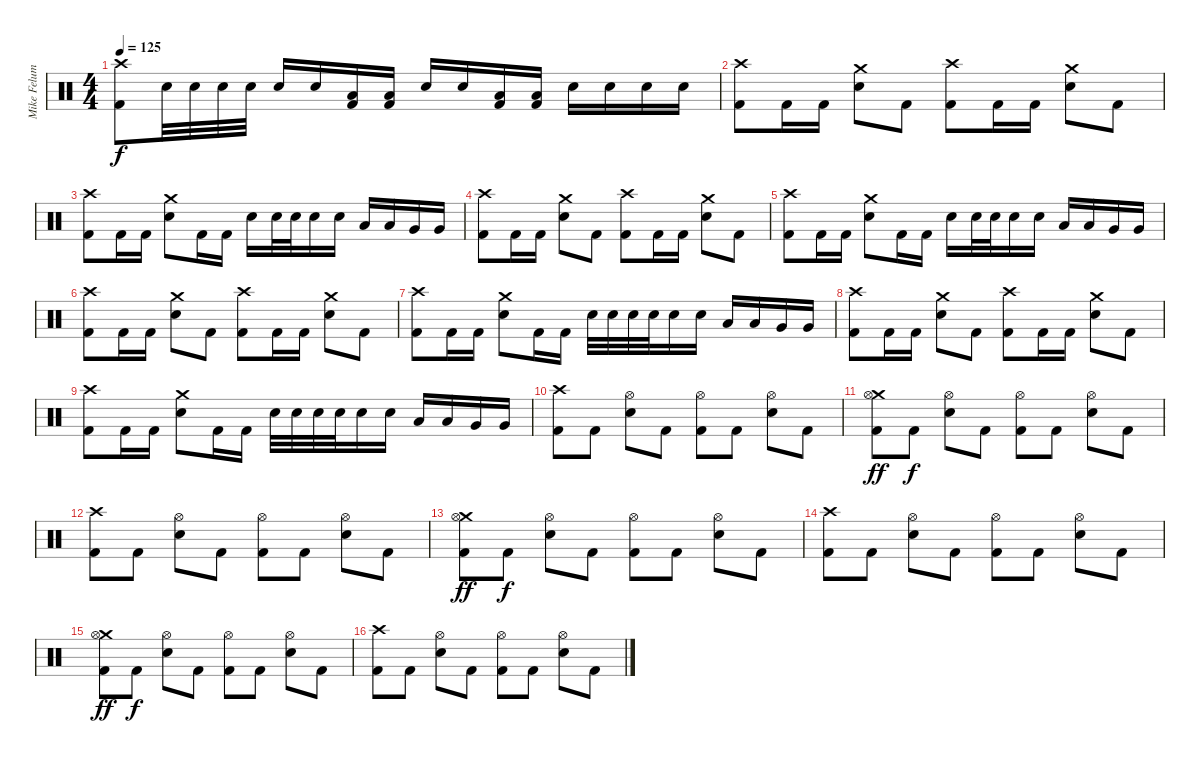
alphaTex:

\track ("Mike Felumlee" "Mike Felum") {instrument percussion}
\staff {score}
\articulation defaults
\ts (4 4)
\tempo 125
\clef neutral
\ks c
("Crash high (hit)" "Kick (hit) 2").8{dy f} "Electric Snare (hit)".32 "Electric Snare (hit)".32 "Electric Snare (hit)".32 "Electric Snare (hit)".32 "Electric Snare (hit)".16 "Electric Snare (hit)".16 ("Low Tom (hit)" "Kick (hit) 2").16 ("Low Tom (hit)" "Kick (hit) 2").16 "Electric Snare (hit)".16 "Electric Snare (hit)".16 ("Low Tom (hit)" "Kick (hit) 2").16 ("Low Tom (hit)" "Kick (hit) 2").16 "Electric Snare (hit)".16 "Electric Snare (hit)".16 "Electric Snare (hit)".16 "Electric Snare (hit)".16 |
("Crash high (hit)" "Kick (hit) 2").8 "Kick (hit) 2".16 "Kick (hit) 2".16 ("Crash medium (hit)" "Electric Snare (hit)").8 "Kick (hit) 2".8 ("Crash high (hit)" "Kick (hit) 2").8 "Kick (hit) 2".16 "Kick (hit) 2".16 ("Crash medium (hit)" "Electric Snare (hit)").8 "Kick (hit) 2".8 |
("Crash high (hit)" "Kick (hit) 2").8 "Kick (hit) 2".16 "Kick (hit) 2".16 ("Crash medium (hit)" "Electric Snare (hit)").8 "Kick (hit) 2".16 "Kick (hit) 2".16 "Electric Snare (hit)".16 "Electric Snare (hit)".32 "Electric Snare (hit)".32 "Electric Snare (hit)".16 "Electric Snare (hit)".16 "Low Tom (hit)".16 "Low Tom (hit)".16 "Very Low Tom (hit)".16 "Very Low Tom (hit)".16 |
("Crash high (hit)" "Kick (hit) 2").8 "Kick (hit) 2".16 "Kick (hit) 2".16 ("Crash medium (hit)" "Electric Snare (hit)").8 "Kick (hit) 2".8 ("Crash high (hit)" "Kick (hit) 2").8 "Kick (hit) 2".16 "Kick (hit) 2".16 ("Crash medium (hit)" "Electric Snare (hit)").8 "Kick (hit) 2".8 |
("Crash high (hit)" "Kick (hit) 2").8 "Kick (hit) 2".16 "Kick (hit) 2".16 ("Crash medium (hit)" "Electric Snare (hit)").8 "Kick (hit) 2".16 "Kick (hit) 2".16 "Electric Snare (hit)".16 "Electric Snare (hit)".32 "Electric Snare (hit)".32 "Electric Snare (hit)".16 "Electric Snare (hit)".16 "Low Tom (hit)".16 "Low Tom (hit)".16 "Very Low Tom (hit)".16 "Very Low Tom (hit)".16 |
("Crash high (hit)" "Kick (hit) 2").8 "Kick (hit) 2".16 "Kick (hit) 2".16 ("Crash medium (hit)" "Electric Snare (hit)").8 "Kick (hit) 2".8 ("Crash high (hit)" "Kick (hit) 2").8 "Kick (hit) 2".16 "Kick (hit) 2".16 ("Crash medium (hit)" "Electric Snare (hit)").8 "Kick (hit) 2".8 |
("Crash high (hit)" "Kick (hit) 2").8 "Kick (hit) 2".16 "Kick (hit) 2".16 ("Crash medium (hit)" "Electric Snare (hit)").8 "Kick (hit) 2".16 "Kick (hit) 2".16 "Electric Snare (hit)".32 "Electric Snare (hit)".32 "Electric Snare (hit)".32 "Electric Snare (hit)".32 "Electric Snare (hit)".16 "Electric Snare (hit)".16 "Low Tom (hit)".16 "Low Tom (hit)".16 "Very Low Tom (hit)".16 "Very Low Tom (hit)".16 |
("Crash high (hit)" "Kick (hit) 2").8 "Kick (hit) 2".16 "Kick (hit) 2".16 ("Crash medium (hit)" "Electric Snare (hit)").8 "Kick (hit) 2".8 ("Crash high (hit)" "Kick (hit) 2").8 "Kick (hit) 2".16 "Kick (hit) 2".16 ("Crash medium (hit)" "Electric Snare (hit)").8 "Kick (hit) 2".8 |
("Crash high (hit)" "Kick (hit) 2").8 "Kick (hit) 2".16 "Kick (hit) 2".16 ("Crash medium (hit)" "Electric Snare (hit)").8 "Kick (hit) 2".16 "Kick (hit) 2".16 "Electric Snare (hit)".32 "Electric Snare (hit)".32 "Electric Snare (hit)".32 "Electric Snare (hit)".32 "Electric Snare (hit)".16 "Electric Snare (hit)".16 "Low Tom (hit)".16 "Low Tom (hit)".16 "Very Low Tom (hit)".16 "Very Low Tom (hit)".16 |
("Crash high (hit)" "Kick (hit) 2").8 "Kick (hit) 2".8 ("Hi-Hat (open)" "Electric Snare (hit)").8 "Kick (hit) 2".8 ("Hi-Hat (open)" "Kick (hit) 2").8 "Kick (hit) 2".8 ("Hi-Hat (open)" "Electric Snare (hit)").8 "Kick (hit) 2".8 |
("Crash medium (hit)" "Hi-Hat (open)" "Kick (hit) 2").8{dy ff} "Kick (hit) 2".8{dy f} ("Hi-Hat (open)" "Electric Snare (hit)").8 "Kick (hit) 2".8 ("Hi-Hat (open)" "Kick (hit) 2").8 "Kick (hit) 2".8 ("Hi-Hat (open)" "Electric Snare (hit)").8 "Kick (hit) 2".8 |
("Crash high (hit)" "Kick (hit) 2").8 "Kick (hit) 2".8 ("Hi-Hat (open)" "Electric Snare (hit)").8 "Kick (hit) 2".8 ("Hi-Hat (open)" "Kick (hit) 2").8 "Kick (hit) 2".8 ("Hi-Hat (open)" "Electric Snare (hit)").8 "Kick (hit) 2".8 |
("Crash medium (hit)" "Hi-Hat (open)" "Kick (hit) 2").8{dy ff} "Kick (hit) 2".8{dy f} ("Hi-Hat (open)" "Electric Snare (hit)").8 "Kick (hit) 2".8 ("Hi-Hat (open)" "Kick (hit) 2").8 "Kick (hit) 2".8 ("Hi-Hat (open)" "Electric Snare (hit)").8 "Kick (hit) 2".8 |
("Crash high (hit)" "Kick (hit) 2").8 "Kick (hit) 2".8 ("Hi-Hat (open)" "Electric Snare (hit)").8 "Kick (hit) 2".8 ("Hi-Hat (open)" "Kick (hit) 2").8 "Kick (hit) 2".8 ("Hi-Hat (open)" "Electric Snare (hit)").8 "Kick (hit) 2".8 |
("Crash medium (hit)" "Hi-Hat (open)" "Kick (hit) 2").8{dy ff} "Kick (hit) 2".8{dy f} ("Hi-Hat (open)" "Electric Snare (hit)").8 "Kick (hit) 2".8 ("Hi-Hat (open)" "Kick (hit) 2").8 "Kick (hit) 2".8 ("Hi-Hat (open)" "Electric Snare (hit)").8 "Kick (hit) 2".8 |
("Crash high (hit)" "Kick (hit) 2").8 "Kick (hit) 2".8 ("Hi-Hat (open)" "Electric Snare (hit)").8 "Kick (hit) 2".8 ("Hi-Hat (open)" "Kick (hit) 2").8 "Kick (hit) 2".8 ("Hi-Hat (open)" "Electric Snare (hit)").8 "Kick (hit) 2".8
